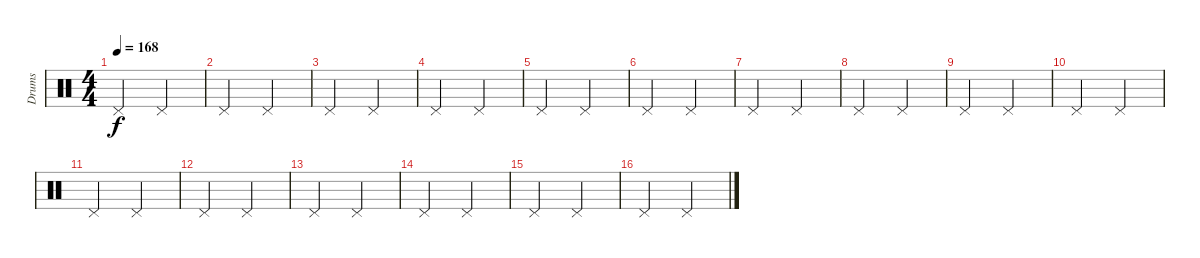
\track ("Drums" "Drums") {instrument percussion}
\staff {score}
\articulation defaults
\ts (4 4)
\tempo 168
\clef neutral
\ks c "Pedal Hi-Hat (hit)".2{dy f} "Pedal Hi-Hat (hit)".2
|
"Pedal Hi-Hat (hit)".2 "Pedal Hi-Hat (hit)".2 |
"Pedal Hi-Hat (hit)".2 "Pedal Hi-Hat (hit)".2 |
"Pedal Hi-Hat (hit)".2 "Pedal Hi-Hat (hit)".2 |
"Pedal Hi-Hat (hit)".2 "Pedal Hi-Hat (hit)".2 |
"Pedal Hi-Hat (hit)".2 "Pedal Hi-Hat (hit)".2 |
"Pedal Hi-Hat (hit)".2 "Pedal Hi-Hat (hit)".2 |
"Pedal Hi-Hat (hit)".2 "Pedal Hi-Hat (hit)".2 |
"Pedal Hi-Hat (hit)".2 "Pedal Hi-Hat (hit)".2 |
"Pedal Hi-Hat (hit)".2 "Pedal Hi-Hat (hit)".2 |
"Pedal Hi-Hat (hit)".2 "Pedal Hi-Hat (hit)".2 |
"Pedal Hi-Hat (hit)".2 "Pedal Hi-Hat (hit)".2 |
"Pedal Hi-Hat (hit)".2 "Pedal Hi-Hat (hit)".2 |
"Pedal Hi-Hat (hit)".2 "Pedal Hi-Hat (hit)".2 |
"Pedal Hi-Hat (hit)".2 "Pedal Hi-Hat (hit)".2 |
"Pedal Hi-Hat (hit)".2 "Pedal Hi-Hat (hit)".2
